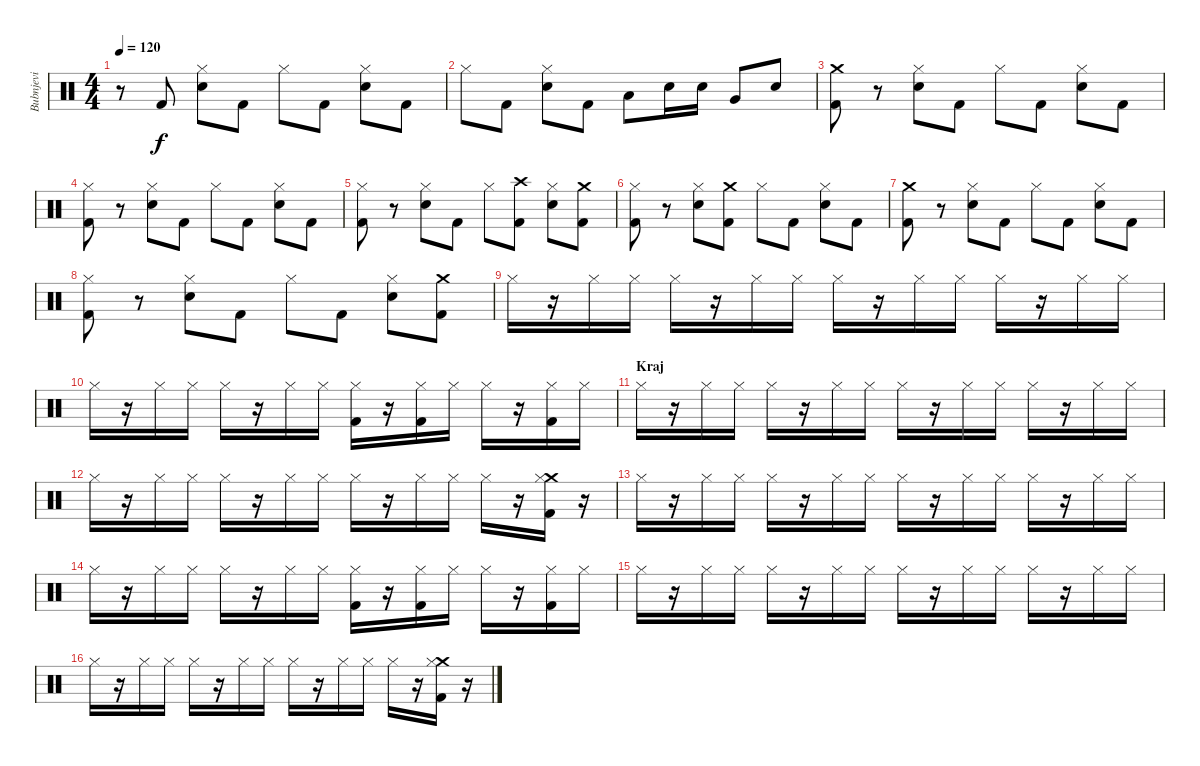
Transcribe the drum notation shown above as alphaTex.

\track ("Bubnjevi" "Bubnjevi") {instrument percussion}
\staff {score}
\articulation defaults
\ts (4 4)
\tempo 120
\clef neutral
\ks c
r.8{dy f} "Kick (hit) 2".8 ("Electric Snare (hit)" "Hi-Hat (closed)").8 "Kick (hit) 2".8 "Hi-Hat (closed)".8 "Kick (hit) 2".8 ("Electric Snare (hit)" "Hi-Hat (closed)").8 "Kick (hit) 2".8 |
"Hi-Hat (closed)".8 "Kick (hit) 2".8 ("Electric Snare (hit)" "Hi-Hat (closed)").8 "Kick (hit) 2".8 "Low Tom (hit)".8 "Electric Snare (hit)".16 "Electric Snare (hit)".16 "Very Low Tom (hit)".8 "Electric Snare (hit)".8 |
("Crash medium (hit)" "Kick (hit) 2").8 r.8 ("Electric Snare (hit)" "Hi-Hat (closed)").8 "Kick (hit) 2".8 "Hi-Hat (closed)".8 "Kick (hit) 2".8 ("Electric Snare (hit)" "Hi-Hat (closed)").8 "Kick (hit) 2".8 |
("Hi-Hat (closed)" "Kick (hit) 2").8 r.8 ("Electric Snare (hit)" "Hi-Hat (closed)").8 "Kick (hit) 2".8 "Hi-Hat (closed)".8 "Kick (hit) 2".8 ("Electric Snare (hit)" "Hi-Hat (closed)").8 "Kick (hit) 2".8 |
("Hi-Hat (closed)" "Kick (hit) 2").8 r.8 ("Electric Snare (hit)" "Hi-Hat (closed)").8 "Kick (hit) 2".8 "Hi-Hat (closed)".8 ("Crash high (hit)" "Kick (hit) 2").8 ("Electric Snare (hit)" "Hi-Hat (closed)").8 ("Crash medium (hit)" "Kick (hit) 2").8 |
("Hi-Hat (closed)" "Kick (hit) 2").8 r.8 ("Electric Snare (hit)" "Hi-Hat (closed)").8 ("Crash medium (hit)" "Kick (hit) 2").8 "Hi-Hat (closed)".8 "Kick (hit) 2".8 ("Electric Snare (hit)" "Hi-Hat (closed)").8 "Kick (hit) 2".8 |
("Crash medium (hit)" "Kick (hit) 2").8 r.8 ("Electric Snare (hit)" "Hi-Hat (closed)").8 "Kick (hit) 2".8 "Hi-Hat (closed)".8 "Kick (hit) 2".8 ("Electric Snare (hit)" "Hi-Hat (closed)").8 "Kick (hit) 2".8 |
("Hi-Hat (closed)" "Kick (hit) 2").8 r.8 ("Electric Snare (hit)" "Hi-Hat (closed)").8 "Kick (hit) 2".8 "Hi-Hat (closed)".8 "Kick (hit) 2".8 ("Electric Snare (hit)" "Hi-Hat (closed)").8 ("Crash medium (hit)" "Kick (hit) 2").8 |
"Hi-Hat (closed)".16 r.16 "Hi-Hat (closed)".16 "Hi-Hat (closed)".16 "Hi-Hat (closed)".16 r.16 "Hi-Hat (closed)".16 "Hi-Hat (closed)".16 "Hi-Hat (closed)".16 r.16 "Hi-Hat (closed)".16 "Hi-Hat (closed)".16 "Hi-Hat (closed)".16 r.16 "Hi-Hat (closed)".16 "Hi-Hat (closed)".16 |
"Hi-Hat (closed)".16 r.16 "Hi-Hat (closed)".16 "Hi-Hat (closed)".16 "Hi-Hat (closed)".16 r.16 "Hi-Hat (closed)".16 "Hi-Hat (closed)".16 ("Hi-Hat (closed)" "Kick (hit) 2").16 r.16 ("Hi-Hat (closed)" "Kick (hit) 2").16 "Hi-Hat (closed)".16 "Hi-Hat (closed)".16 r.16 ("Hi-Hat (closed)" "Kick (hit) 2").16 "Hi-Hat (closed)".16 |
\section ("" "Kraj")
"Hi-Hat (closed)".16 r.16 "Hi-Hat (closed)".16 "Hi-Hat (closed)".16 "Hi-Hat (closed)".16 r.16 "Hi-Hat (closed)".16 "Hi-Hat (closed)".16 "Hi-Hat (closed)".16 r.16 "Hi-Hat (closed)".16 "Hi-Hat (closed)".16 "Hi-Hat (closed)".16 r.16 "Hi-Hat (closed)".16 "Hi-Hat (closed)".16 |
"Hi-Hat (closed)".16 r.16 "Hi-Hat (closed)".16 "Hi-Hat (closed)".16 "Hi-Hat (closed)".16 r.16 "Hi-Hat (closed)".16 "Hi-Hat (closed)".16 "Hi-Hat (closed)".16 r.16 "Hi-Hat (closed)".16 "Hi-Hat (closed)".16 "Hi-Hat (closed)".16 r.16 ("Crash medium (hit)" "Hi-Hat (closed)" "Kick (hit) 2").16 r.16 |
"Hi-Hat (closed)".16 r.16 "Hi-Hat (closed)".16 "Hi-Hat (closed)".16 "Hi-Hat (closed)".16 r.16 "Hi-Hat (closed)".16 "Hi-Hat (closed)".16 "Hi-Hat (closed)".16 r.16 "Hi-Hat (closed)".16 "Hi-Hat (closed)".16 "Hi-Hat (closed)".16 r.16 "Hi-Hat (closed)".16 "Hi-Hat (closed)".16 |
"Hi-Hat (closed)".16 r.16 "Hi-Hat (closed)".16 "Hi-Hat (closed)".16 "Hi-Hat (closed)".16 r.16 "Hi-Hat (closed)".16 "Hi-Hat (closed)".16 ("Hi-Hat (closed)" "Kick (hit) 2").16 r.16 ("Hi-Hat (closed)" "Kick (hit) 2").16 "Hi-Hat (closed)".16 "Hi-Hat (closed)".16 r.16 ("Hi-Hat (closed)" "Kick (hit) 2").16 "Hi-Hat (closed)".16 |
"Hi-Hat (closed)".16 r.16 "Hi-Hat (closed)".16 "Hi-Hat (closed)".16 "Hi-Hat (closed)".16 r.16 "Hi-Hat (closed)".16 "Hi-Hat (closed)".16 "Hi-Hat (closed)".16 r.16 "Hi-Hat (closed)".16 "Hi-Hat (closed)".16 "Hi-Hat (closed)".16 r.16 "Hi-Hat (closed)".16 "Hi-Hat (closed)".16 |
"Hi-Hat (closed)".16 r.16 "Hi-Hat (closed)".16 "Hi-Hat (closed)".16 "Hi-Hat (closed)".16 r.16 "Hi-Hat (closed)".16 "Hi-Hat (closed)".16 "Hi-Hat (closed)".16 r.16 "Hi-Hat (closed)".16 "Hi-Hat (closed)".16 "Hi-Hat (closed)".16 r.16 ("Crash medium (hit)" "Hi-Hat (closed)" "Kick (hit) 2").16 r.16
